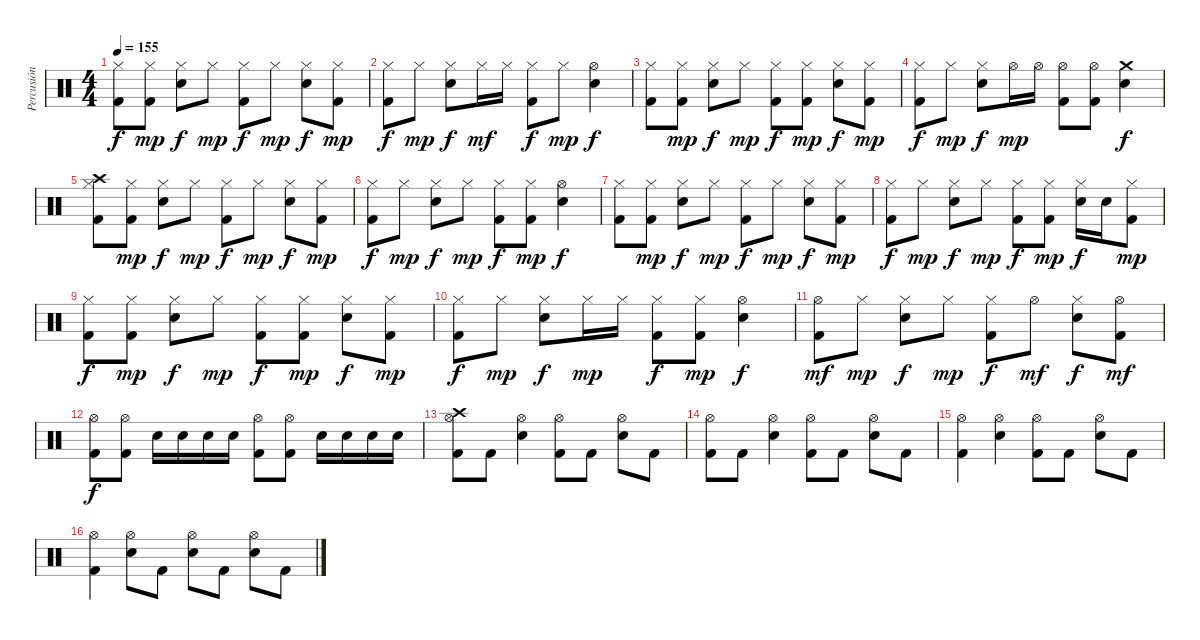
\track ("Percusión" "Percusión") {instrument percussion}
\staff {score}
\articulation defaults
\ts (4 4)
\tempo 155
\clef neutral
\ks c
("Hi-Hat (closed)" "Kick (hit) 2").8{dy f} ("Hi-Hat (closed)" "Kick (hit) 2").8{dy mp} ("Hi-Hat (closed)" "Snare (hit) 2").8{dy f} "Hi-Hat (closed)".8{dy mp} ("Hi-Hat (closed)" "Kick (hit) 2").8{dy f} "Hi-Hat (closed)".8{dy mp} ("Hi-Hat (closed)" "Snare (hit) 2").8{dy f} ("Hi-Hat (closed)" "Kick (hit) 2").8{dy mp} |
("Hi-Hat (closed)" "Kick (hit) 2").8{dy f} "Hi-Hat (closed)".8{dy mp} ("Hi-Hat (closed)" "Snare (hit) 2").8{dy f} "Hi-Hat (closed)".16{dy mf} "Hi-Hat (closed)".16 ("Hi-Hat (closed)" "Kick (hit) 2").8{dy f} "Hi-Hat (closed)".8{dy mp} ("Hi-Hat (open)" "Snare (hit) 2").4{dy f} |
("Hi-Hat (closed)" "Kick (hit) 2").8 ("Hi-Hat (closed)" "Kick (hit) 2").8{dy mp} ("Hi-Hat (closed)" "Snare (hit) 2").8{dy f} "Hi-Hat (closed)".8{dy mp} ("Hi-Hat (closed)" "Kick (hit) 2").8{dy f} ("Hi-Hat (closed)" "Kick (hit) 2").8{dy mp} ("Hi-Hat (closed)" "Snare (hit) 2").8{dy f} ("Hi-Hat (closed)" "Kick (hit) 2").8{dy mp} |
("Hi-Hat (closed)" "Kick (hit) 2").8{dy f} "Hi-Hat (closed)".8{dy mp} ("Hi-Hat (closed)" "Snare (hit) 2").8{dy f} "Hi-Hat (open)".16{dy mp} "Hi-Hat (open)".16 ("Hi-Hat (open)" "Kick (hit) 2").8 ("Hi-Hat (open)" "Kick (hit) 2").8 ("Crash medium (hit)" "Snare (hit) 2").4{dy f} |
("Crash high (hit)" "Hi-Hat (closed)" "Kick (hit) 2").8 ("Hi-Hat (closed)" "Kick (hit) 2").8{dy mp} ("Hi-Hat (closed)" "Snare (hit) 2").8{dy f} "Hi-Hat (closed)".8{dy mp} ("Hi-Hat (closed)" "Kick (hit) 2").8{dy f} "Hi-Hat (closed)".8{dy mp} ("Hi-Hat (closed)" "Snare (hit) 2").8{dy f} ("Hi-Hat (closed)" "Kick (hit) 2").8{dy mp} |
("Hi-Hat (closed)" "Kick (hit) 2").8{dy f} "Hi-Hat (closed)".8{dy mp} ("Hi-Hat (closed)" "Snare (hit) 2").8{dy f} "Hi-Hat (closed)".8{dy mp} ("Hi-Hat (closed)" "Kick (hit) 2").8{dy f} ("Hi-Hat (closed)" "Kick (hit) 2").8{dy mp} ("Hi-Hat (open)" "Snare (hit) 2").4{dy f} |
("Hi-Hat (closed)" "Kick (hit) 2").8 ("Hi-Hat (closed)" "Kick (hit) 2").8{dy mp} ("Hi-Hat (closed)" "Snare (hit) 2").8{dy f} "Hi-Hat (closed)".8{dy mp} ("Hi-Hat (closed)" "Kick (hit) 2").8{dy f} "Hi-Hat (closed)".8{dy mp} ("Hi-Hat (closed)" "Snare (hit) 2").8{dy f} ("Hi-Hat (closed)" "Kick (hit) 2").8{dy mp} |
("Hi-Hat (closed)" "Kick (hit) 2").8{dy f} "Hi-Hat (closed)".8{dy mp} ("Hi-Hat (closed)" "Snare (hit) 2").8{dy f} "Hi-Hat (closed)".8{dy mp} ("Hi-Hat (closed)" "Kick (hit) 2").8{dy f} ("Hi-Hat (closed)" "Kick (hit) 2").8{dy mp} ("Hi-Hat (closed)" "Snare (hit) 2").16{dy f} "Snare (hit) 2".16 ("Hi-Hat (closed)" "Kick (hit) 2").8{dy mp} |
("Hi-Hat (closed)" "Kick (hit) 2").8{dy f} ("Hi-Hat (closed)" "Kick (hit) 2").8{dy mp} ("Hi-Hat (closed)" "Snare (hit) 2").8{dy f} "Hi-Hat (closed)".8{dy mp} ("Hi-Hat (closed)" "Kick (hit) 2").8{dy f} ("Hi-Hat (closed)" "Kick (hit) 2").8{dy mp} ("Hi-Hat (closed)" "Snare (hit) 2").8{dy f} ("Hi-Hat (closed)" "Kick (hit) 2").8{dy mp} |
("Hi-Hat (closed)" "Kick (hit) 2").8{dy f} "Hi-Hat (closed)".8{dy mp} ("Hi-Hat (closed)" "Snare (hit) 2").8{dy f} "Hi-Hat (closed)".16{dy mp} "Hi-Hat (closed)".16 ("Hi-Hat (closed)" "Kick (hit) 2").8{dy f} ("Hi-Hat (closed)" "Kick (hit) 2").8{dy mp} ("Hi-Hat (open)" "Snare (hit) 2").4{dy f} |
("Hi-Hat (open)" "Kick (hit) 2").8{dy mf} "Hi-Hat (closed)".8{dy mp} ("Hi-Hat (closed)" "Snare (hit) 2").8{dy f} "Hi-Hat (closed)".8{dy mp} ("Hi-Hat (closed)" "Kick (hit) 2").8{dy f} "Hi-Hat (open)".8{dy mf} ("Hi-Hat (closed)" "Snare (hit) 2").8{dy f} ("Hi-Hat (open)" "Kick (hit) 2").8{dy mf} |
("Hi-Hat (open)" "Kick (hit) 2").8{dy f} ("Hi-Hat (open)" "Kick (hit) 2").8 "Snare (hit) 2".16 "Snare (hit) 2".16 "Snare (hit) 2".16 "Snare (hit) 2".16 ("Hi-Hat (open)" "Kick (hit) 2").8 ("Hi-Hat (open)" "Kick (hit) 2").8 "Snare (hit) 2".16 "Snare (hit) 2".16 "Snare (hit) 2".16 "Snare (hit) 2".16 |
("Crash high (hit)" "Hi-Hat (open)" "Kick (hit) 2").8 "Kick (hit) 2".8 ("Hi-Hat (open)" "Snare (hit) 2").4 ("Hi-Hat (open)" "Kick (hit) 2").8 "Kick (hit) 2".8 ("Hi-Hat (open)" "Snare (hit) 2").8 "Kick (hit) 2".8 |
("Hi-Hat (open)" "Kick (hit) 2").8 "Kick (hit) 2".8 ("Hi-Hat (open)" "Snare (hit) 2").4 ("Hi-Hat (open)" "Kick (hit) 2").8 "Kick (hit) 2".8 ("Hi-Hat (open)" "Snare (hit) 2").8 "Kick (hit) 2".8 |
("Hi-Hat (open)" "Kick (hit) 2").4 ("Hi-Hat (open)" "Snare (hit) 2").4 ("Hi-Hat (open)" "Kick (hit) 2").8 "Kick (hit) 2".8 ("Hi-Hat (open)" "Snare (hit) 2").8 "Kick (hit) 2".8 |
("Hi-Hat (open)" "Kick (hit) 2").4 ("Hi-Hat (open)" "Snare (hit) 2").8 "Kick (hit) 2".8 ("Hi-Hat (open)" "Snare (hit) 2").8 "Kick (hit) 2".8 ("Hi-Hat (open)" "Snare (hit) 2").8 "Kick (hit) 2".8
